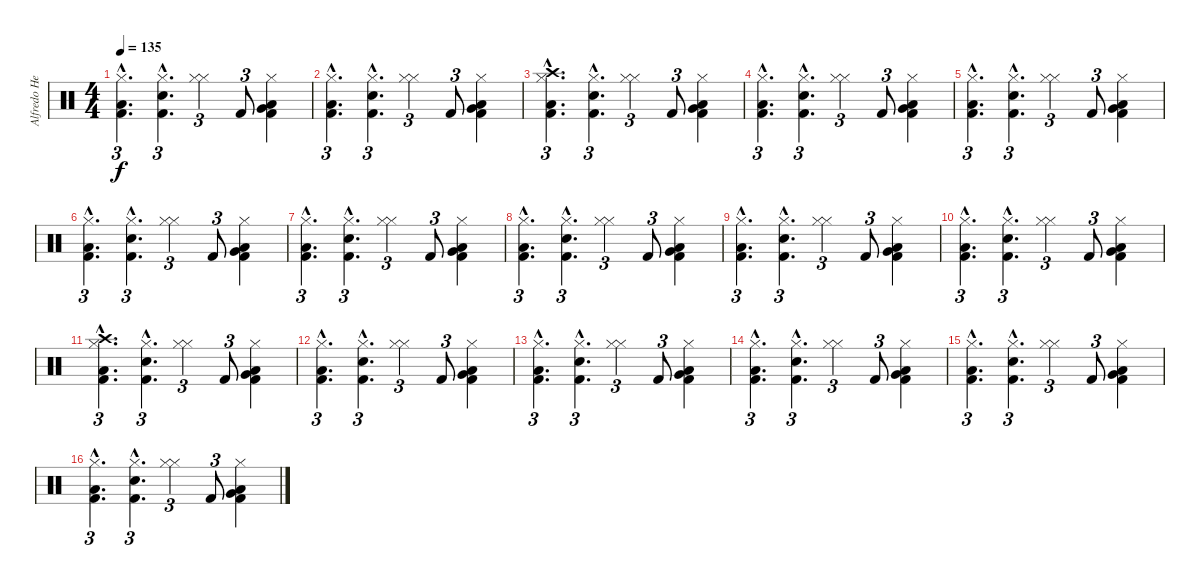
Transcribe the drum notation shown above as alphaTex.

\track ("Alfredo Hernandez" "Alfredo He") {instrument percussion}
\staff {score}
\articulation defaults
\ts (4 4)
\tempo 135
\clef neutral
\ks c
("Hi-Hat (closed)"{hac} "Low Floor Tom (hit)"{hac} "Kick (hit) 2"{hac}).4{d tu (3 2) dy f} ("Electric Snare (hit)"{hac} "Hi-Hat (closed)"{hac} "Kick (hit) 2"{hac}).4{d tu (3 2)} ("Hi-Hat (closed)" "Hi-Hat (closed)").4{tu (3 2)} "Kick (hit) 2".8{tu (3 2)} ("Hi-Hat (closed)" "Very Low Tom (hit)" "Low Floor Tom (hit)" "Kick (hit) 2").4 |
("Hi-Hat (closed)"{hac} "Low Floor Tom (hit)"{hac} "Kick (hit) 2"{hac}).4{d tu (3 2)} ("Electric Snare (hit)"{hac} "Hi-Hat (closed)"{hac} "Kick (hit) 2"{hac}).4{d tu (3 2)} ("Hi-Hat (closed)" "Hi-Hat (closed)").4{tu (3 2)} "Kick (hit) 2".8{tu (3 2)} ("Hi-Hat (closed)" "Very Low Tom (hit)" "Low Floor Tom (hit)" "Kick (hit) 2").4 |
("Hi-Hat (closed)"{hac} "Crash high (hit)"{hac} "Low Floor Tom (hit)"{hac} "Kick (hit) 2"{hac}).4{d tu (3 2)} ("Electric Snare (hit)"{hac} "Hi-Hat (closed)"{hac} "Kick (hit) 2"{hac}).4{d tu (3 2)} ("Hi-Hat (closed)" "Hi-Hat (closed)").4{tu (3 2)} "Kick (hit) 2".8{tu (3 2)} ("Hi-Hat (closed)" "Very Low Tom (hit)" "Low Floor Tom (hit)" "Kick (hit) 2").4 |
("Hi-Hat (closed)"{hac} "Low Floor Tom (hit)"{hac} "Kick (hit) 2"{hac}).4{d tu (3 2)} ("Electric Snare (hit)"{hac} "Hi-Hat (closed)"{hac} "Kick (hit) 2"{hac}).4{d tu (3 2)} ("Hi-Hat (closed)" "Hi-Hat (closed)").4{tu (3 2)} "Kick (hit) 2".8{tu (3 2)} ("Hi-Hat (closed)" "Very Low Tom (hit)" "Low Floor Tom (hit)" "Kick (hit) 2").4 |
("Hi-Hat (closed)"{hac} "Low Floor Tom (hit)"{hac} "Kick (hit) 2"{hac}).4{d tu (3 2)} ("Electric Snare (hit)"{hac} "Hi-Hat (closed)"{hac} "Kick (hit) 2"{hac}).4{d tu (3 2)} ("Hi-Hat (closed)" "Hi-Hat (closed)").4{tu (3 2)} "Kick (hit) 2".8{tu (3 2)} ("Hi-Hat (closed)" "Very Low Tom (hit)" "Low Floor Tom (hit)" "Kick (hit) 2").4 |
("Hi-Hat (closed)"{hac} "Low Floor Tom (hit)"{hac} "Kick (hit) 2"{hac}).4{d tu (3 2)} ("Electric Snare (hit)"{hac} "Hi-Hat (closed)"{hac} "Kick (hit) 2"{hac}).4{d tu (3 2)} ("Hi-Hat (closed)" "Hi-Hat (closed)").4{tu (3 2)} "Kick (hit) 2".8{tu (3 2)} ("Hi-Hat (closed)" "Very Low Tom (hit)" "Low Floor Tom (hit)" "Kick (hit) 2").4 |
("Hi-Hat (closed)"{hac} "Low Floor Tom (hit)"{hac} "Kick (hit) 2"{hac}).4{d tu (3 2)} ("Electric Snare (hit)"{hac} "Hi-Hat (closed)"{hac} "Kick (hit) 2"{hac}).4{d tu (3 2)} ("Hi-Hat (closed)" "Hi-Hat (closed)").4{tu (3 2)} "Kick (hit) 2".8{tu (3 2)} ("Hi-Hat (closed)" "Very Low Tom (hit)" "Low Floor Tom (hit)" "Kick (hit) 2").4 |
("Hi-Hat (closed)"{hac} "Low Floor Tom (hit)"{hac} "Kick (hit) 2"{hac}).4{d tu (3 2)} ("Electric Snare (hit)"{hac} "Hi-Hat (closed)"{hac} "Kick (hit) 2"{hac}).4{d tu (3 2)} ("Hi-Hat (closed)" "Hi-Hat (closed)").4{tu (3 2)} "Kick (hit) 2".8{tu (3 2)} ("Hi-Hat (closed)" "Very Low Tom (hit)" "Low Floor Tom (hit)" "Kick (hit) 2").4 |
("Hi-Hat (closed)"{hac} "Low Floor Tom (hit)"{hac} "Kick (hit) 2"{hac}).4{d tu (3 2)} ("Electric Snare (hit)"{hac} "Hi-Hat (closed)"{hac} "Kick (hit) 2"{hac}).4{d tu (3 2)} ("Hi-Hat (closed)" "Hi-Hat (closed)").4{tu (3 2)} "Kick (hit) 2".8{tu (3 2)} ("Hi-Hat (closed)" "Very Low Tom (hit)" "Low Floor Tom (hit)" "Kick (hit) 2").4 |
("Hi-Hat (closed)"{hac} "Low Floor Tom (hit)"{hac} "Kick (hit) 2"{hac}).4{d tu (3 2)} ("Electric Snare (hit)"{hac} "Hi-Hat (closed)"{hac} "Kick (hit) 2"{hac}).4{d tu (3 2)} ("Hi-Hat (closed)" "Hi-Hat (closed)").4{tu (3 2)} "Kick (hit) 2".8{tu (3 2)} ("Hi-Hat (closed)" "Very Low Tom (hit)" "Low Floor Tom (hit)" "Kick (hit) 2").4 |
("Hi-Hat (closed)"{hac} "Crash high (hit)"{hac} "Low Floor Tom (hit)"{hac} "Kick (hit) 2"{hac}).4{d tu (3 2)} ("Electric Snare (hit)"{hac} "Hi-Hat (closed)"{hac} "Kick (hit) 2"{hac}).4{d tu (3 2)} ("Hi-Hat (closed)" "Hi-Hat (closed)").4{tu (3 2)} "Kick (hit) 2".8{tu (3 2)} ("Hi-Hat (closed)" "Very Low Tom (hit)" "Low Floor Tom (hit)" "Kick (hit) 2").4 |
("Hi-Hat (closed)"{hac} "Low Floor Tom (hit)"{hac} "Kick (hit) 2"{hac}).4{d tu (3 2)} ("Electric Snare (hit)"{hac} "Hi-Hat (closed)"{hac} "Kick (hit) 2"{hac}).4{d tu (3 2)} ("Hi-Hat (closed)" "Hi-Hat (closed)").4{tu (3 2)} "Kick (hit) 2".8{tu (3 2)} ("Hi-Hat (closed)" "Very Low Tom (hit)" "Low Floor Tom (hit)" "Kick (hit) 2").4 |
("Hi-Hat (closed)"{hac} "Low Floor Tom (hit)"{hac} "Kick (hit) 2"{hac}).4{d tu (3 2)} ("Electric Snare (hit)"{hac} "Hi-Hat (closed)"{hac} "Kick (hit) 2"{hac}).4{d tu (3 2)} ("Hi-Hat (closed)" "Hi-Hat (closed)").4{tu (3 2)} "Kick (hit) 2".8{tu (3 2)} ("Hi-Hat (closed)" "Very Low Tom (hit)" "Low Floor Tom (hit)" "Kick (hit) 2").4 |
("Hi-Hat (closed)"{hac} "Low Floor Tom (hit)"{hac} "Kick (hit) 2"{hac}).4{d tu (3 2)} ("Electric Snare (hit)"{hac} "Hi-Hat (closed)"{hac} "Kick (hit) 2"{hac}).4{d tu (3 2)} ("Hi-Hat (closed)" "Hi-Hat (closed)").4{tu (3 2)} "Kick (hit) 2".8{tu (3 2)} ("Hi-Hat (closed)" "Very Low Tom (hit)" "Low Floor Tom (hit)" "Kick (hit) 2").4 |
("Hi-Hat (closed)"{hac} "Low Floor Tom (hit)"{hac} "Kick (hit) 2"{hac}).4{d tu (3 2)} ("Electric Snare (hit)"{hac} "Hi-Hat (closed)"{hac} "Kick (hit) 2"{hac}).4{d tu (3 2)} ("Hi-Hat (closed)" "Hi-Hat (closed)").4{tu (3 2)} "Kick (hit) 2".8{tu (3 2)} ("Hi-Hat (closed)" "Very Low Tom (hit)" "Low Floor Tom (hit)" "Kick (hit) 2").4 |
("Hi-Hat (closed)"{hac} "Low Floor Tom (hit)"{hac} "Kick (hit) 2"{hac}).4{d tu (3 2)} ("Electric Snare (hit)"{hac} "Hi-Hat (closed)"{hac} "Kick (hit) 2"{hac}).4{d tu (3 2)} ("Hi-Hat (closed)" "Hi-Hat (closed)").4{tu (3 2)} "Kick (hit) 2".8{tu (3 2)} ("Hi-Hat (closed)" "Very Low Tom (hit)" "Low Floor Tom (hit)" "Kick (hit) 2").4
